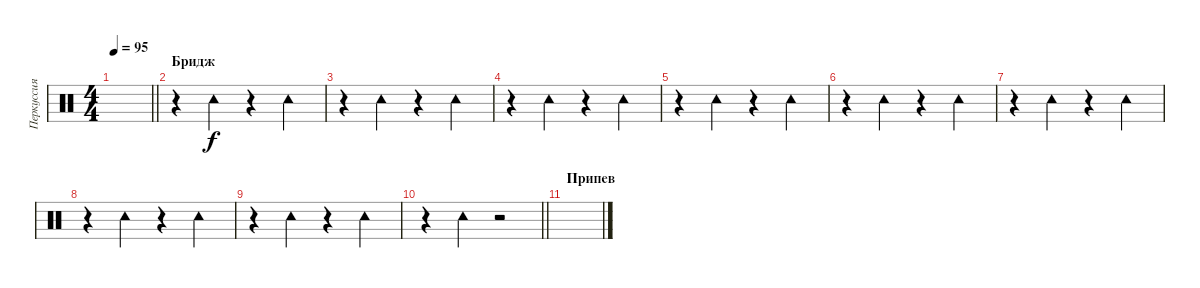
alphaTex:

\track ("Перкуссия" "Перкуссия") {instrument percussion}
\staff {score}
\articulation defaults
\ts (4 4)
\tempo 95
\clef neutral
\barLineRight lightlight
\ks c
|
\section ("" "Бридж")
r.4{volume 6} "Tambourine (hit)".4 r.4 "Tambourine (hit)".4 |
r.4 "Tambourine (hit)".4 r.4 "Tambourine (hit)".4 |
r.4 "Tambourine (hit)".4 r.4 "Tambourine (hit)".4 |
r.4 "Tambourine (hit)".4 r.4 "Tambourine (hit)".4 |
r.4 "Tambourine (hit)".4 r.4 "Tambourine (hit)".4 |
r.4 "Tambourine (hit)".4 r.4 "Tambourine (hit)".4 |
r.4 "Tambourine (hit)".4 r.4 "Tambourine (hit)".4 |
r.4 "Tambourine (hit)".4 r.4 "Tambourine (hit)".4 |
\barLineRight lightlight
r.4 "Tambourine (hit)".4 r.2 |
\section ("" "Припев")
